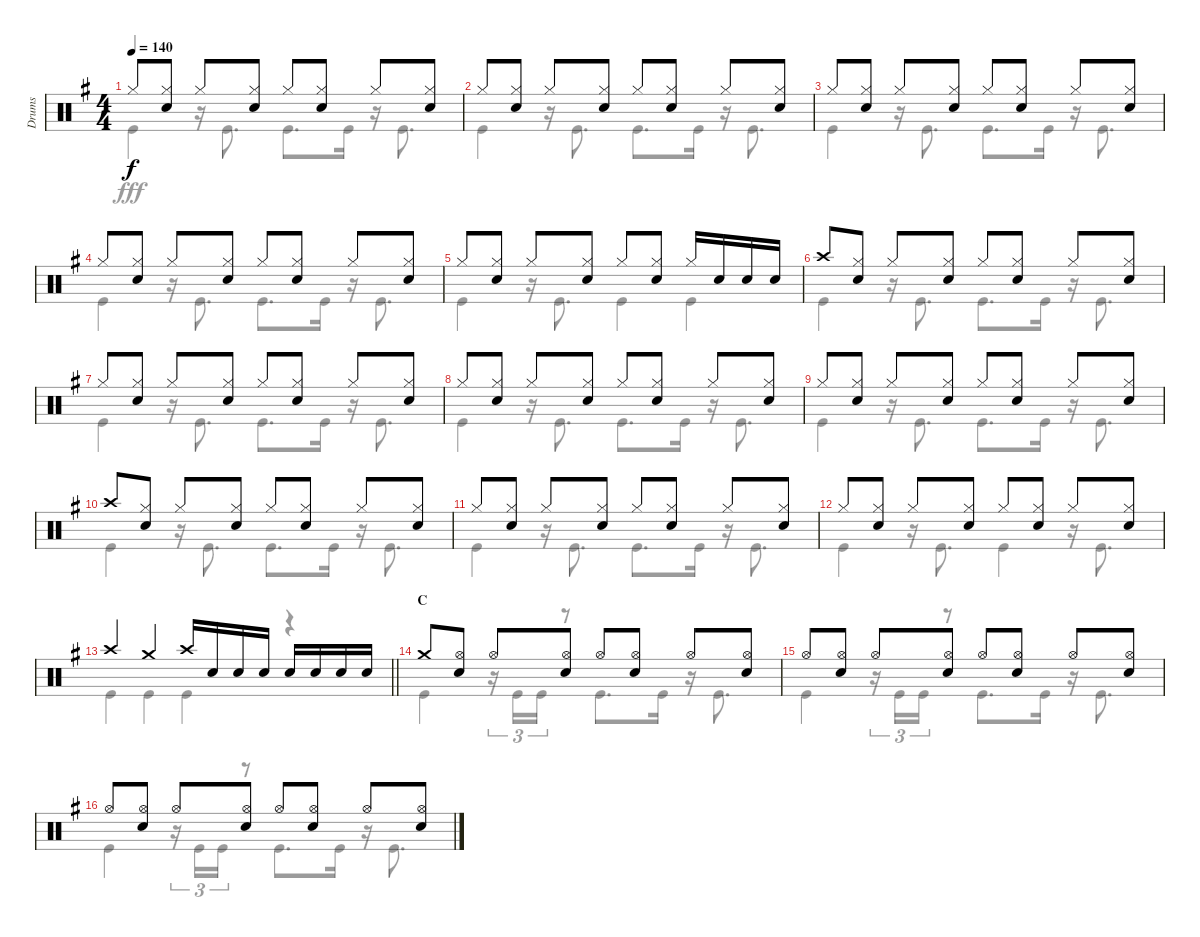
\track ("Drums" "Drums") {instrument percussion}
\staff {score}
\articulation defaults
\voice
\ts (4 4)
\tempo 140
\clef neutral
\ks g "Hi-Hat (closed)".8{dy f}
("Hi-Hat (closed)" "Snare (hit) 2").8 "Hi-Hat (closed)".8 ("Hi-Hat (closed)" "Snare (hit) 2").8 "Hi-Hat (closed)".8 ("Hi-Hat (closed)" "Snare (hit) 2").8 "Hi-Hat (closed)".8 ("Hi-Hat (closed)" "Snare (hit) 2").8 |
"Hi-Hat (closed)".8 ("Hi-Hat (closed)" "Snare (hit) 2").8 "Hi-Hat (closed)".8 ("Hi-Hat (closed)" "Snare (hit) 2").8 "Hi-Hat (closed)".8 ("Hi-Hat (closed)" "Snare (hit) 2").8 "Hi-Hat (closed)".8 ("Hi-Hat (closed)" "Snare (hit) 2").8 |
"Hi-Hat (closed)".8 ("Hi-Hat (closed)" "Snare (hit) 2").8 "Hi-Hat (closed)".8 ("Hi-Hat (closed)" "Snare (hit) 2").8 "Hi-Hat (closed)".8 ("Hi-Hat (closed)" "Snare (hit) 2").8 "Hi-Hat (closed)".8 ("Hi-Hat (closed)" "Snare (hit) 2").8 |
"Hi-Hat (closed)".8 ("Hi-Hat (closed)" "Snare (hit) 2").8 "Hi-Hat (closed)".8 ("Hi-Hat (closed)" "Snare (hit) 2").8 "Hi-Hat (closed)".8 ("Hi-Hat (closed)" "Snare (hit) 2").8 "Hi-Hat (closed)".8 ("Hi-Hat (closed)" "Snare (hit) 2").8 |
"Hi-Hat (closed)".8 ("Hi-Hat (closed)" "Snare (hit) 2").8 "Hi-Hat (closed)".8 ("Hi-Hat (closed)" "Snare (hit) 2").8 "Hi-Hat (closed)".8 ("Hi-Hat (closed)" "Snare (hit) 2").8 "Hi-Hat (closed)".16 "Snare (hit) 2".16 "Snare (hit) 2".16 "Snare (hit) 2".16 |
"Crash high (hit)".8 ("Hi-Hat (closed)" "Snare (hit) 2").8 "Hi-Hat (closed)".8 ("Hi-Hat (closed)" "Snare (hit) 2").8 "Hi-Hat (closed)".8 ("Hi-Hat (closed)" "Snare (hit) 2").8 "Hi-Hat (closed)".8 ("Hi-Hat (closed)" "Snare (hit) 2").8 |
"Hi-Hat (closed)".8 ("Hi-Hat (closed)" "Snare (hit) 2").8 "Hi-Hat (closed)".8 ("Hi-Hat (closed)" "Snare (hit) 2").8 "Hi-Hat (closed)".8 ("Hi-Hat (closed)" "Snare (hit) 2").8 "Hi-Hat (closed)".8 ("Hi-Hat (closed)" "Snare (hit) 2").8 |
"Hi-Hat (closed)".8 ("Hi-Hat (closed)" "Snare (hit) 2").8 "Hi-Hat (closed)".8 ("Hi-Hat (closed)" "Snare (hit) 2").8 "Hi-Hat (closed)".8 ("Hi-Hat (closed)" "Snare (hit) 2").8 "Hi-Hat (closed)".8 ("Hi-Hat (closed)" "Snare (hit) 2").8 |
"Hi-Hat (closed)".8 ("Hi-Hat (closed)" "Snare (hit) 2").8 "Hi-Hat (closed)".8 ("Hi-Hat (closed)" "Snare (hit) 2").8 "Hi-Hat (closed)".8 ("Hi-Hat (closed)" "Snare (hit) 2").8 "Hi-Hat (closed)".8 ("Hi-Hat (closed)" "Snare (hit) 2").8 |
"Crash high (hit)".8 ("Hi-Hat (closed)" "Snare (hit) 2").8 "Hi-Hat (closed)".8 ("Hi-Hat (closed)" "Snare (hit) 2").8 "Hi-Hat (closed)".8 ("Hi-Hat (closed)" "Snare (hit) 2").8 "Hi-Hat (closed)".8 ("Hi-Hat (closed)" "Snare (hit) 2").8 |
"Hi-Hat (closed)".8 ("Hi-Hat (closed)" "Snare (hit) 2").8 "Hi-Hat (closed)".8 ("Hi-Hat (closed)" "Snare (hit) 2").8 "Hi-Hat (closed)".8 ("Hi-Hat (closed)" "Snare (hit) 2").8 "Hi-Hat (closed)".8 ("Hi-Hat (closed)" "Snare (hit) 2").8 |
"Hi-Hat (closed)".8 ("Hi-Hat (closed)" "Snare (hit) 2").8 "Hi-Hat (closed)".8 ("Hi-Hat (closed)" "Snare (hit) 2").8 "Hi-Hat (closed)".8 ("Hi-Hat (closed)" "Snare (hit) 2").8 "Hi-Hat (closed)".8 ("Hi-Hat (closed)" "Snare (hit) 2").8 |
\barLineRight lightlight "Crash high (hit)".4 "Crash medium (hit)".4 "Crash high (hit)".16 "Snare (hit) 2".16 "Snare (hit) 2".16 "Snare (hit) 2".16 "Snare (hit) 2".16 "Snare (hit) 2".16 "Snare (hit) 2".16 "Snare (hit) 2".16
|
\section ("" "C")
"Crash medium (hit)".8 ("Hi-Hat (open)" "Snare (hit) 2").8 "Hi-Hat (open)".8 ("Hi-Hat (open)" "Snare (hit) 2").8 "Hi-Hat (open)".8 ("Hi-Hat (open)" "Snare (hit) 2").8 "Hi-Hat (open)".8 ("Hi-Hat (open)" "Snare (hit) 2").8 |
"Hi-Hat (open)".8 ("Hi-Hat (open)" "Snare (hit) 2").8 "Hi-Hat (open)".8 ("Hi-Hat (open)" "Snare (hit) 2").8 "Hi-Hat (open)".8 ("Hi-Hat (open)" "Snare (hit) 2").8 "Hi-Hat (open)".8 ("Hi-Hat (open)" "Snare (hit) 2").8 |
"Hi-Hat (open)".8 ("Hi-Hat (open)" "Snare (hit) 2").8 "Hi-Hat (open)".8 ("Hi-Hat (open)" "Snare (hit) 2").8 "Hi-Hat (open)".8 ("Hi-Hat (open)" "Snare (hit) 2").8 "Hi-Hat (open)".8 ("Hi-Hat (open)" "Snare (hit) 2").8
\voice
\clef neutral
\ottava regular
\simile none
\ks g "Kick (hit)".4{dy fff}
r.16 "Kick (hit)".8{d} "Kick (hit)".8{d} "Kick (hit)".16 r.16 "Kick (hit)".8{d} |
"Kick (hit)".4 r.16 "Kick (hit)".8{d} "Kick (hit)".8{d} "Kick (hit)".16 r.16 "Kick (hit)".8{d} |
"Kick (hit)".4 r.16 "Kick (hit)".8{d} "Kick (hit)".8{d} "Kick (hit)".16 r.16 "Kick (hit)".8{d} |
"Kick (hit)".4 r.16 "Kick (hit)".8{d} "Kick (hit)".8{d} "Kick (hit)".16 r.16 "Kick (hit)".8{d} |
"Kick (hit)".4 r.16 "Kick (hit)".8{d} "Kick (hit)".4 "Kick (hit)".4 |
"Kick (hit)".4 r.16 "Kick (hit)".8{d} "Kick (hit)".8{d} "Kick (hit)".16 r.16 "Kick (hit)".8{d} |
"Kick (hit)".4 r.16 "Kick (hit)".8{d} "Kick (hit)".8{d} "Kick (hit)".16 r.16 "Kick (hit)".8{d} |
"Kick (hit)".4 r.16 "Kick (hit)".8{d} "Kick (hit)".8{d} "Kick (hit)".16 r.16 "Kick (hit)".8{d} |
"Kick (hit)".4 r.16 "Kick (hit)".8{d} "Kick (hit)".8{d} "Kick (hit)".16 r.16 "Kick (hit)".8{d} |
"Kick (hit)".4 r.16 "Kick (hit)".8{d} "Kick (hit)".8{d} "Kick (hit)".16 r.16 "Kick (hit)".8{d} |
"Kick (hit)".4 r.16 "Kick (hit)".8{d} "Kick (hit)".8{d} "Kick (hit)".16 r.16 "Kick (hit)".8{d} |
"Kick (hit)".4 r.16 "Kick (hit)".8{d} "Kick (hit)".4 r.16 "Kick (hit)".8{d} |
\barLineRight lightlight "Kick (hit)".4 "Kick (hit)".4 "Kick (hit)".4
r.4 |
"Kick (hit)".4 r.16{tu (3 2)} "Kick (hit)".16{tu (3 2)} "Kick (hit)".16{tu (3 2)} r.8 "Kick (hit)".8{d} "Kick (hit)".16 r.16 "Kick (hit)".8{d} |
"Kick (hit)".4 r.16{tu (3 2)} "Kick (hit)".16{tu (3 2)} "Kick (hit)".16{tu (3 2)} r.8 "Kick (hit)".8{d} "Kick (hit)".16 r.16 "Kick (hit)".8{d} |
"Kick (hit)".4 r.16{tu (3 2)} "Kick (hit)".16{tu (3 2)} "Kick (hit)".16{tu (3 2)} r.8 "Kick (hit)".8{d} "Kick (hit)".16 r.16 "Kick (hit)".8{d}
